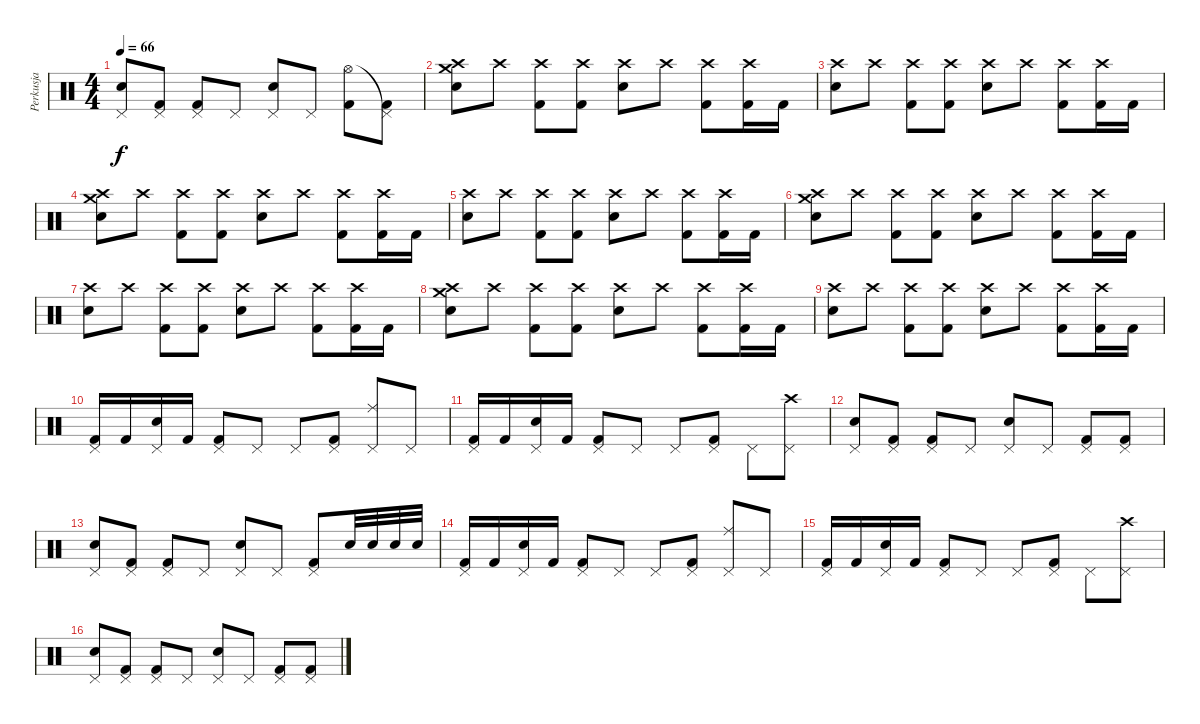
\track ("Perkusja" "Perkusja") {instrument percussion}
\staff {score}
\articulation defaults
\ts (4 4)
\tempo 66
\clef neutral
\ks c
("Snare (hit) 2" "Pedal Hi-Hat (hit)").8{dy f} ("Kick (hit) 2" "Pedal Hi-Hat (hit)").8 ("Kick (hit) 2" "Pedal Hi-Hat (hit)").8 "Pedal Hi-Hat (hit)".8 ("Snare (hit) 2" "Pedal Hi-Hat (hit)").8 "Pedal Hi-Hat (hit)".8 ("Kick (hit) 2" "Hi-Hat (open)").8 ("Kick (hit) 2" "Pedal Hi-Hat (hit)"{t}).8 |
("Snare (hit) 2" "Crash high (hit)" "Crash medium (hit)").8 "Crash high (hit)".8 ("Kick (hit) 2" "Crash high (hit)").8 ("Kick (hit) 2" "Crash high (hit)").8 ("Snare (hit) 2" "Crash high (hit)").8 "Crash high (hit)".8 ("Kick (hit) 2" "Crash high (hit)").8 ("Kick (hit) 2" "Crash high (hit)").16 "Kick (hit) 2".16 |
("Snare (hit) 2" "Crash high (hit)").8 "Crash high (hit)".8 ("Kick (hit) 2" "Crash high (hit)").8 ("Kick (hit) 2" "Crash high (hit)").8 ("Snare (hit) 2" "Crash high (hit)").8 "Crash high (hit)".8 ("Kick (hit) 2" "Crash high (hit)").8 ("Kick (hit) 2" "Crash high (hit)").16 "Kick (hit) 2".16 |
("Snare (hit) 2" "Crash high (hit)" "Crash medium (hit)").8 "Crash high (hit)".8 ("Kick (hit) 2" "Crash high (hit)").8 ("Kick (hit) 2" "Crash high (hit)").8 ("Snare (hit) 2" "Crash high (hit)").8 "Crash high (hit)".8 ("Kick (hit) 2" "Crash high (hit)").8 ("Kick (hit) 2" "Crash high (hit)").16 "Kick (hit) 2".16 |
("Snare (hit) 2" "Crash high (hit)").8 "Crash high (hit)".8 ("Kick (hit) 2" "Crash high (hit)").8 ("Kick (hit) 2" "Crash high (hit)").8 ("Snare (hit) 2" "Crash high (hit)").8 "Crash high (hit)".8 ("Kick (hit) 2" "Crash high (hit)").8 ("Kick (hit) 2" "Crash high (hit)").16 "Kick (hit) 2".16 |
("Snare (hit) 2" "Crash high (hit)" "Crash medium (hit)").8 "Crash high (hit)".8 ("Kick (hit) 2" "Crash high (hit)").8 ("Kick (hit) 2" "Crash high (hit)").8 ("Snare (hit) 2" "Crash high (hit)").8 "Crash high (hit)".8 ("Kick (hit) 2" "Crash high (hit)").8 ("Kick (hit) 2" "Crash high (hit)").16 "Kick (hit) 2".16 |
("Snare (hit) 2" "Crash high (hit)").8 "Crash high (hit)".8 ("Kick (hit) 2" "Crash high (hit)").8 ("Kick (hit) 2" "Crash high (hit)").8 ("Snare (hit) 2" "Crash high (hit)").8 "Crash high (hit)".8 ("Kick (hit) 2" "Crash high (hit)").8 ("Kick (hit) 2" "Crash high (hit)").16 "Kick (hit) 2".16 |
("Snare (hit) 2" "Crash high (hit)" "Crash medium (hit)").8 "Crash high (hit)".8 ("Kick (hit) 2" "Crash high (hit)").8 ("Kick (hit) 2" "Crash high (hit)").8 ("Snare (hit) 2" "Crash high (hit)").8 "Crash high (hit)".8 ("Kick (hit) 2" "Crash high (hit)").8 ("Kick (hit) 2" "Crash high (hit)").16 "Kick (hit) 2".16 |
("Snare (hit) 2" "Crash high (hit)").8 "Crash high (hit)".8 ("Kick (hit) 2" "Crash high (hit)").8 ("Kick (hit) 2" "Crash high (hit)").8 ("Snare (hit) 2" "Crash high (hit)").8 "Crash high (hit)".8 ("Kick (hit) 2" "Crash high (hit)").8 ("Kick (hit) 2" "Crash high (hit)").16 "Kick (hit) 2".16 |
("Kick (hit) 2" "Pedal Hi-Hat (hit)").16 "Kick (hit) 2".16 ("Snare (hit) 2" "Pedal Hi-Hat (hit)").16 "Kick (hit) 2".16 ("Kick (hit) 2" "Pedal Hi-Hat (hit)").8 "Pedal Hi-Hat (hit)".8 "Pedal Hi-Hat (hit)".8 ("Kick (hit) 2" "Pedal Hi-Hat (hit)").8 ("Ride (middle)" "Pedal Hi-Hat (hit)").8 "Pedal Hi-Hat (hit)".8 |
("Kick (hit) 2" "Pedal Hi-Hat (hit)").16 "Kick (hit) 2".16 ("Snare (hit) 2" "Pedal Hi-Hat (hit)").16 "Kick (hit) 2".16 ("Kick (hit) 2" "Pedal Hi-Hat (hit)").8 "Pedal Hi-Hat (hit)".8 "Pedal Hi-Hat (hit)".8 ("Kick (hit) 2" "Pedal Hi-Hat (hit)").8 "Pedal Hi-Hat (hit)".8 ("Crash high (hit)" "Pedal Hi-Hat (hit)").8 |
("Snare (hit) 2" "Pedal Hi-Hat (hit)").8 ("Kick (hit) 2" "Pedal Hi-Hat (hit)").8 ("Kick (hit) 2" "Pedal Hi-Hat (hit)").8 "Pedal Hi-Hat (hit)".8 ("Snare (hit) 2" "Pedal Hi-Hat (hit)").8 "Pedal Hi-Hat (hit)".8 ("Kick (hit) 2" "Pedal Hi-Hat (hit)").8 ("Kick (hit) 2" "Pedal Hi-Hat (hit)").8 |
("Snare (hit) 2" "Pedal Hi-Hat (hit)").8 ("Kick (hit) 2" "Pedal Hi-Hat (hit)").8 ("Kick (hit) 2" "Pedal Hi-Hat (hit)").8 "Pedal Hi-Hat (hit)".8 ("Snare (hit) 2" "Pedal Hi-Hat (hit)").8 "Pedal Hi-Hat (hit)".8 ("Kick (hit) 2" "Pedal Hi-Hat (hit)").8 "Snare (hit) 2".32 "Snare (hit) 2".32 "Snare (hit) 2".32 "Snare (hit) 2".32 |
("Kick (hit) 2" "Pedal Hi-Hat (hit)").16 "Kick (hit) 2".16 ("Snare (hit) 2" "Pedal Hi-Hat (hit)").16 "Kick (hit) 2".16 ("Kick (hit) 2" "Pedal Hi-Hat (hit)").8 "Pedal Hi-Hat (hit)".8 "Pedal Hi-Hat (hit)".8 ("Kick (hit) 2" "Pedal Hi-Hat (hit)").8 ("Ride (middle)" "Pedal Hi-Hat (hit)").8 "Pedal Hi-Hat (hit)".8 |
("Kick (hit) 2" "Pedal Hi-Hat (hit)").16 "Kick (hit) 2".16 ("Snare (hit) 2" "Pedal Hi-Hat (hit)").16 "Kick (hit) 2".16 ("Kick (hit) 2" "Pedal Hi-Hat (hit)").8 "Pedal Hi-Hat (hit)".8 "Pedal Hi-Hat (hit)".8 ("Kick (hit) 2" "Pedal Hi-Hat (hit)").8 "Pedal Hi-Hat (hit)".8 ("Crash high (hit)" "Pedal Hi-Hat (hit)").8 |
("Snare (hit) 2" "Pedal Hi-Hat (hit)").8 ("Kick (hit) 2" "Pedal Hi-Hat (hit)").8 ("Kick (hit) 2" "Pedal Hi-Hat (hit)").8 "Pedal Hi-Hat (hit)".8 ("Snare (hit) 2" "Pedal Hi-Hat (hit)").8 "Pedal Hi-Hat (hit)".8 ("Kick (hit) 2" "Pedal Hi-Hat (hit)").8 ("Kick (hit) 2" "Pedal Hi-Hat (hit)").8
